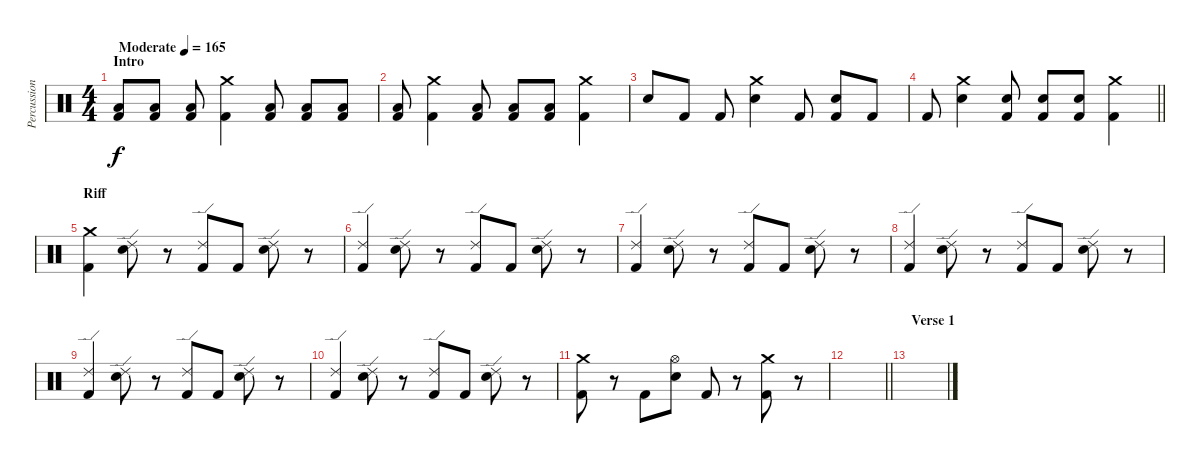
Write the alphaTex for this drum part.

\track ("Percussion" "Percussion") {instrument percussion}
\staff {score}
\articulation defaults
\ts (4 4)
\section ("" "Intro")
\tempo (165 "Moderate")
\clef neutral
\ks c
("Low Floor Tom (hit)" "Kick (hit) 2").8{dy f} ("Low Floor Tom (hit)" "Kick (hit) 2").8 ("Low Floor Tom (hit)" "Kick (hit) 2").8 ("Kick (hit) 2" "Crash medium (hit)").4 ("Low Floor Tom (hit)" "Kick (hit) 2").8 ("Low Floor Tom (hit)" "Kick (hit) 2").8 ("Low Floor Tom (hit)" "Kick (hit) 2").8 |
("Low Floor Tom (hit)" "Kick (hit) 2").8 ("Kick (hit) 2" "Crash medium (hit)").4 ("Low Floor Tom (hit)" "Kick (hit) 2").8 ("Low Floor Tom (hit)" "Kick (hit) 2").8 ("Low Floor Tom (hit)" "Kick (hit) 2").8 ("Kick (hit) 2" "Crash medium (hit)").4 |
"Electric Snare (hit)".8 "Kick (hit) 2".8 "Kick (hit) 2".8 ("Electric Snare (hit)" "Crash medium (hit)").4 "Kick (hit) 2".8 ("Electric Snare (hit)" "Kick (hit) 2").8 "Kick (hit) 2".8 |
\barLineRight lightlight "Kick (hit) 2".8
("Electric Snare (hit)" "Crash medium (hit)").4 ("Electric Snare (hit)" "Kick (hit) 2").8 ("Electric Snare (hit)" "Kick (hit) 2").8 ("Electric Snare (hit)" "Kick (hit) 2").8 ("Kick (hit) 2" "Crash medium (hit)").4 |
\section ("" "Riff")
("Crash medium (hit)" "Kick (hit) 2").4 ("Ride (edge) 2" "Electric Snare (hit)").8 r.8 ("Ride (edge) 2" "Kick (hit) 2").8 "Kick (hit) 2".8 ("Ride (edge) 2" "Electric Snare (hit)").8 r.8 |
("Ride (edge) 2" "Kick (hit) 2").4 ("Ride (edge) 2" "Electric Snare (hit)").8 r.8 ("Ride (edge) 2" "Kick (hit) 2").8 "Kick (hit) 2".8 ("Ride (edge) 2" "Electric Snare (hit)").8 r.8 |
("Ride (edge) 2" "Kick (hit) 2").4 ("Ride (edge) 2" "Electric Snare (hit)").8 r.8 ("Ride (edge) 2" "Kick (hit) 2").8 "Kick (hit) 2".8 ("Ride (edge) 2" "Electric Snare (hit)").8 r.8 |
("Ride (edge) 2" "Kick (hit) 2").4 ("Ride (edge) 2" "Electric Snare (hit)").8 r.8 ("Ride (edge) 2" "Kick (hit) 2").8 "Kick (hit) 2".8 ("Ride (edge) 2" "Electric Snare (hit)").8 r.8 |
("Ride (edge) 2" "Kick (hit) 2").4 ("Ride (edge) 2" "Electric Snare (hit)").8 r.8 ("Ride (edge) 2" "Kick (hit) 2").8 "Kick (hit) 2".8 ("Ride (edge) 2" "Electric Snare (hit)").8 r.8 |
("Ride (edge) 2" "Kick (hit) 2").4 ("Ride (edge) 2" "Electric Snare (hit)").8 r.8 ("Ride (edge) 2" "Kick (hit) 2").8 "Kick (hit) 2".8 ("Ride (edge) 2" "Electric Snare (hit)").8 r.8 |
("Crash medium (hit)" "Kick (hit) 2").8 r.8 "Kick (hit) 2".8 ("Hi-Hat (open)" "Electric Snare (hit)").8 "Kick (hit) 2".8 r.8 ("Crash medium (hit)" "Kick (hit) 2").8 r.8 |
\barLineRight lightlight
|
\section ("" "Verse 1 ")
